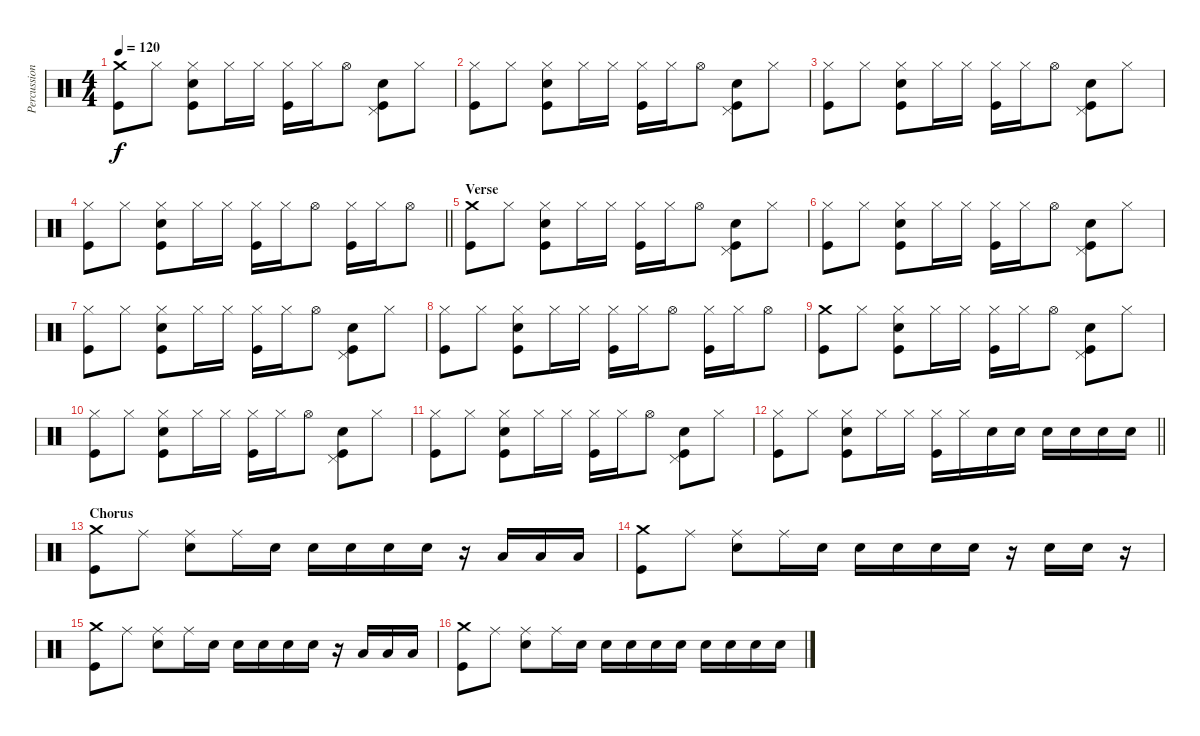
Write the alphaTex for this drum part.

\track ("Percussion" "Percussion") {instrument percussion}
\staff {score}
\articulation defaults
\ts (4 4)
\tempo 120
\clef neutral
\ks c
("Crash medium (hit)" "Kick (hit)").8{dy f} "Hi-Hat (closed)".8 ("Snare (hit) 2" "Hi-Hat (closed)" "Kick (hit)").8 "Hi-Hat (closed)".16 "Hi-Hat (closed)".16 ("Hi-Hat (closed)" "Kick (hit)").16 "Hi-Hat (closed)".16 "Hi-Hat (open)".8 ("Snare (hit) 2" "Pedal Hi-Hat (hit)" "Kick (hit)").8 "Hi-Hat (closed)".8 |
("Hi-Hat (closed)" "Kick (hit)").8 "Hi-Hat (closed)".8 ("Snare (hit) 2" "Hi-Hat (closed)" "Kick (hit)").8 "Hi-Hat (closed)".16 "Hi-Hat (closed)".16 ("Hi-Hat (closed)" "Kick (hit)").16 "Hi-Hat (closed)".16 "Hi-Hat (open)".8 ("Snare (hit) 2" "Pedal Hi-Hat (hit)" "Kick (hit)").8 "Hi-Hat (closed)".8 |
("Hi-Hat (closed)" "Kick (hit)").8 "Hi-Hat (closed)".8 ("Snare (hit) 2" "Hi-Hat (closed)" "Kick (hit)").8 "Hi-Hat (closed)".16 "Hi-Hat (closed)".16 ("Hi-Hat (closed)" "Kick (hit)").16 "Hi-Hat (closed)".16 "Hi-Hat (open)".8 ("Snare (hit) 2" "Pedal Hi-Hat (hit)" "Kick (hit)").8 "Hi-Hat (closed)".8 |
\barLineRight lightlight
("Hi-Hat (closed)" "Kick (hit)").8 "Hi-Hat (closed)".8 ("Snare (hit) 2" "Hi-Hat (closed)" "Kick (hit)").8 "Hi-Hat (closed)".16 "Hi-Hat (closed)".16 ("Hi-Hat (closed)" "Kick (hit)").16 "Hi-Hat (closed)".16 "Hi-Hat (open)".8 ("Hi-Hat (closed)" "Kick (hit)").16 "Hi-Hat (closed)".16 "Hi-Hat (open)".8 |
\section ("" "Verse")
("Crash medium (hit)" "Kick (hit)").8 "Hi-Hat (closed)".8 ("Snare (hit) 2" "Hi-Hat (closed)" "Kick (hit)").8 "Hi-Hat (closed)".16 "Hi-Hat (closed)".16 ("Hi-Hat (closed)" "Kick (hit)").16 "Hi-Hat (closed)".16 "Hi-Hat (open)".8 ("Snare (hit) 2" "Pedal Hi-Hat (hit)" "Kick (hit)").8 "Hi-Hat (closed)".8 |
("Hi-Hat (closed)" "Kick (hit)").8 "Hi-Hat (closed)".8 ("Snare (hit) 2" "Hi-Hat (closed)" "Kick (hit)").8 "Hi-Hat (closed)".16 "Hi-Hat (closed)".16 ("Hi-Hat (closed)" "Kick (hit)").16 "Hi-Hat (closed)".16 "Hi-Hat (open)".8 ("Snare (hit) 2" "Pedal Hi-Hat (hit)" "Kick (hit)").8 "Hi-Hat (closed)".8 |
("Hi-Hat (closed)" "Kick (hit)").8 "Hi-Hat (closed)".8 ("Snare (hit) 2" "Hi-Hat (closed)" "Kick (hit)").8 "Hi-Hat (closed)".16 "Hi-Hat (closed)".16 ("Hi-Hat (closed)" "Kick (hit)").16 "Hi-Hat (closed)".16 "Hi-Hat (open)".8 ("Snare (hit) 2" "Pedal Hi-Hat (hit)" "Kick (hit)").8 "Hi-Hat (closed)".8 |
("Hi-Hat (closed)" "Kick (hit)").8 "Hi-Hat (closed)".8 ("Snare (hit) 2" "Hi-Hat (closed)" "Kick (hit)").8 "Hi-Hat (closed)".16 "Hi-Hat (closed)".16 ("Hi-Hat (closed)" "Kick (hit)").16 "Hi-Hat (closed)".16 "Hi-Hat (open)".8 ("Hi-Hat (closed)" "Kick (hit)").16 "Hi-Hat (closed)".16 "Hi-Hat (open)".8 |
("Crash medium (hit)" "Kick (hit)").8 "Hi-Hat (closed)".8 ("Snare (hit) 2" "Hi-Hat (closed)" "Kick (hit)").8 "Hi-Hat (closed)".16 "Hi-Hat (closed)".16 ("Hi-Hat (closed)" "Kick (hit)").16 "Hi-Hat (closed)".16 "Hi-Hat (open)".8 ("Snare (hit) 2" "Pedal Hi-Hat (hit)" "Kick (hit)").8 "Hi-Hat (closed)".8 |
("Hi-Hat (closed)" "Kick (hit)").8 "Hi-Hat (closed)".8 ("Snare (hit) 2" "Hi-Hat (closed)" "Kick (hit)").8 "Hi-Hat (closed)".16 "Hi-Hat (closed)".16 ("Hi-Hat (closed)" "Kick (hit)").16 "Hi-Hat (closed)".16 "Hi-Hat (open)".8 ("Snare (hit) 2" "Pedal Hi-Hat (hit)" "Kick (hit)").8 "Hi-Hat (closed)".8 |
("Hi-Hat (closed)" "Kick (hit)").8 "Hi-Hat (closed)".8 ("Snare (hit) 2" "Hi-Hat (closed)" "Kick (hit)").8 "Hi-Hat (closed)".16 "Hi-Hat (closed)".16 ("Hi-Hat (closed)" "Kick (hit)").16 "Hi-Hat (closed)".16 "Hi-Hat (open)".8 ("Snare (hit) 2" "Pedal Hi-Hat (hit)" "Kick (hit)").8 "Hi-Hat (closed)".8 |
\barLineRight lightlight
("Hi-Hat (closed)" "Kick (hit)").8 "Hi-Hat (closed)".8 ("Snare (hit) 2" "Hi-Hat (closed)" "Kick (hit)").8 "Hi-Hat (closed)".16 "Hi-Hat (closed)".16 ("Hi-Hat (closed)" "Kick (hit)").16 "Hi-Hat (closed)".16 "Snare (hit) 2".16 "Snare (hit) 2".16 "Snare (hit) 2".16 "Snare (hit) 2".16 "Snare (hit) 2".16 "Snare (hit) 2".16 |
\section ("" "Chorus")
("Crash medium (hit)" "Kick (hit)").8 "Ride (middle)".8 ("Ride (middle)" "Snare (hit) 2").8 "Ride (middle)".16 "Snare (hit) 2".16 "Snare (hit) 2".16 "Snare (hit) 2".16 "Snare (hit) 2".16 "Snare (hit) 2".16 r.16 "Low Tom (hit)".16 "Low Tom (hit)".16 "Low Tom (hit)".16 |
("Crash medium (hit)" "Kick (hit)").8 "Ride (middle)".8 ("Ride (middle)" "Snare (hit) 2").8 "Ride (middle)".16 "Snare (hit) 2".16 "Snare (hit) 2".16 "Snare (hit) 2".16 "Snare (hit) 2".16 "Snare (hit) 2".16 r.16 "Snare (hit) 2".16 "Snare (hit) 2".16 r.16 |
("Crash medium (hit)" "Kick (hit)").8 "Ride (middle)".8 ("Ride (middle)" "Snare (hit) 2").8 "Ride (middle)".16 "Snare (hit) 2".16 "Snare (hit) 2".16 "Snare (hit) 2".16 "Snare (hit) 2".16 "Snare (hit) 2".16 r.16 "Low Tom (hit)".16 "Low Tom (hit)".16 "Low Tom (hit)".16 |
("Crash medium (hit)" "Kick (hit)").8 "Ride (middle)".8 ("Ride (middle)" "Snare (hit) 2").8 "Ride (middle)".16 "Snare (hit) 2".16 "Snare (hit) 2".16 "Snare (hit) 2".16 "Snare (hit) 2".16 "Snare (hit) 2".16 "Snare (hit) 2".16 "Snare (hit) 2".16 "Snare (hit) 2".16 "Snare (hit) 2".16
